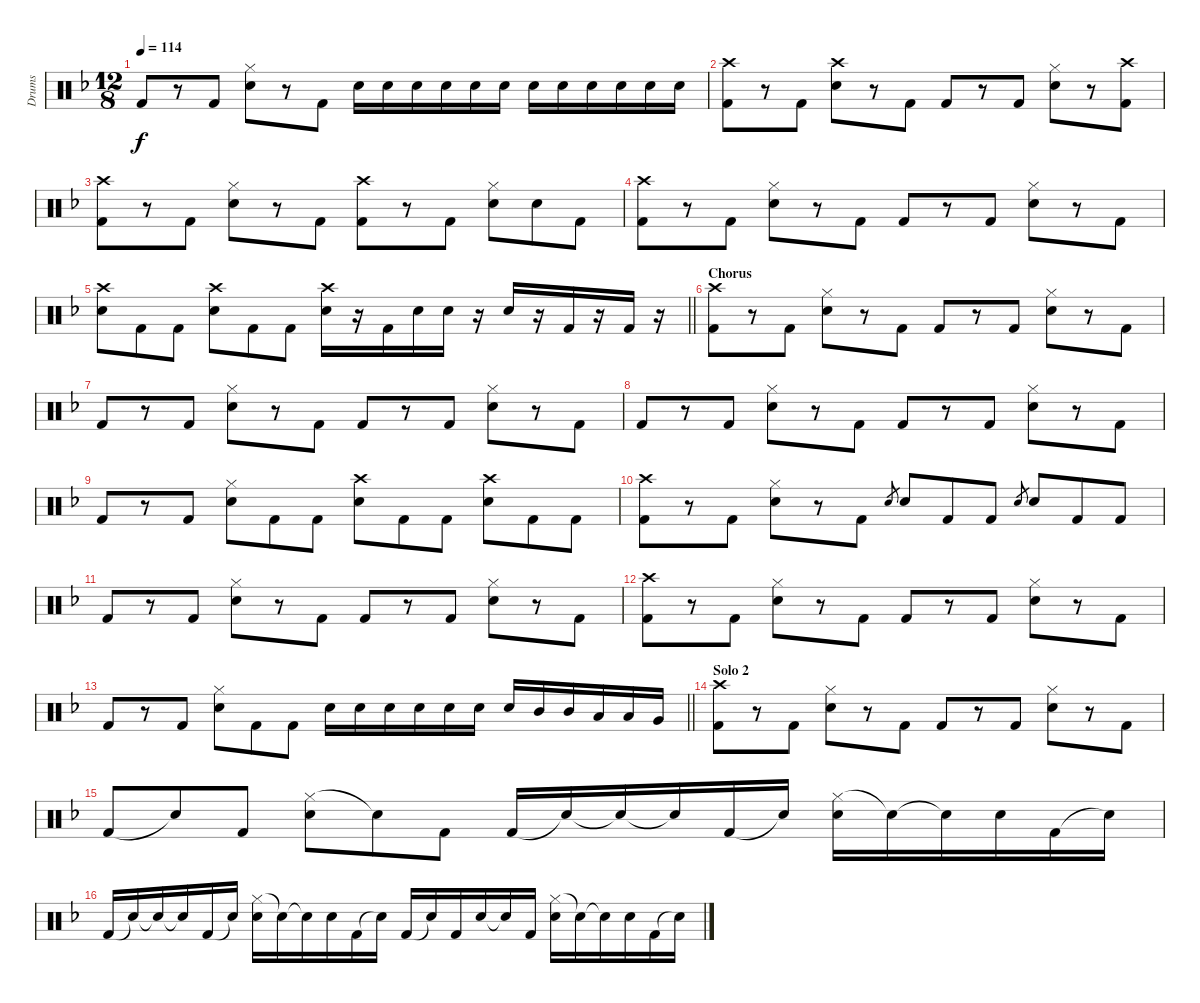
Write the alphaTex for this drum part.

\track ("Drums" "Drums") {instrument percussion}
\staff {score}
\articulation defaults
\ts (12 8)
\tempo 114
\clef neutral
\ks f "Kick (hit) 2".8{dy f}
r.8 "Kick (hit) 2".8 ("Hi-Hat (closed)" "Electric Snare (hit)").8 r.8 "Kick (hit) 2".8 "Electric Snare (hit)".16 "Electric Snare (hit)".16 "Electric Snare (hit)".16 "Electric Snare (hit)".16 "Electric Snare (hit)".16 "Electric Snare (hit)".16 "Electric Snare (hit)".16 "Electric Snare (hit)".16 "Electric Snare (hit)".16 "Electric Snare (hit)".16 "Electric Snare (hit)".16 "Electric Snare (hit)".16 |
("Crash high (hit)" "Kick (hit) 2").8 r.8 "Kick (hit) 2".8 ("Crash high (hit)" "Electric Snare (hit)").8 r.8 "Kick (hit) 2".8 "Kick (hit) 2".8 r.8 "Kick (hit) 2".8 ("Hi-Hat (closed)" "Electric Snare (hit)").8 r.8 ("Crash high (hit)" "Kick (hit) 2").8 |
("Crash high (hit)" "Kick (hit) 2").8 r.8 "Kick (hit) 2".8 ("Hi-Hat (closed)" "Electric Snare (hit)").8 r.8 "Kick (hit) 2".8 ("Crash high (hit)" "Kick (hit) 2").8 r.8 "Kick (hit) 2".8 ("Hi-Hat (closed)" "Electric Snare (hit)").8 "Electric Snare (hit)".8 "Kick (hit) 2".8 |
("Crash high (hit)" "Kick (hit) 2").8 r.8 "Kick (hit) 2".8 ("Hi-Hat (closed)" "Electric Snare (hit)").8 r.8 "Kick (hit) 2".8 "Kick (hit) 2".8 r.8 "Kick (hit) 2".8 ("Hi-Hat (closed)" "Electric Snare (hit)").8 r.8 "Kick (hit) 2".8 |
\barLineRight lightlight
("Crash high (hit)" "Electric Snare (hit)").8 "Kick (hit) 2".8 "Kick (hit) 2".8 ("Crash high (hit)" "Electric Snare (hit)").8 "Kick (hit) 2".8 "Kick (hit) 2".8 ("Crash high (hit)" "Electric Snare (hit)").16 r.16 "Kick (hit) 2".16 "Electric Snare (hit)".16 "Electric Snare (hit)".16 r.16 "Electric Snare (hit)".16 r.16 "Kick (hit) 2".16 r.16 "Kick (hit) 2".16 r.16 |
\section ("" "Chorus")
("Crash high (hit)" "Kick (hit) 2").8 r.8 "Kick (hit) 2".8 ("Hi-Hat (closed)" "Electric Snare (hit)").8 r.8 "Kick (hit) 2".8 "Kick (hit) 2".8 r.8 "Kick (hit) 2".8 ("Hi-Hat (closed)" "Electric Snare (hit)").8 r.8 "Kick (hit) 2".8 |
"Kick (hit) 2".8 r.8 "Kick (hit) 2".8 ("Hi-Hat (closed)" "Electric Snare (hit)").8 r.8 "Kick (hit) 2".8 "Kick (hit) 2".8 r.8 "Kick (hit) 2".8 ("Hi-Hat (closed)" "Electric Snare (hit)").8 r.8 "Kick (hit) 2".8 |
"Kick (hit) 2".8 r.8 "Kick (hit) 2".8 ("Hi-Hat (closed)" "Electric Snare (hit)").8 r.8 "Kick (hit) 2".8 "Kick (hit) 2".8 r.8 "Kick (hit) 2".8 ("Hi-Hat (closed)" "Electric Snare (hit)").8 r.8 "Kick (hit) 2".8 |
"Kick (hit) 2".8 r.8 "Kick (hit) 2".8 ("Hi-Hat (closed)" "Electric Snare (hit)").8 "Kick (hit) 2".8 "Kick (hit) 2".8 ("Crash high (hit)" "Electric Snare (hit)").8 "Kick (hit) 2".8 "Kick (hit) 2".8 ("Crash high (hit)" "Electric Snare (hit)").8 "Kick (hit) 2".8 "Kick (hit) 2".8 |
("Crash high (hit)" "Kick (hit) 2").8 r.8 "Kick (hit) 2".8 ("Hi-Hat (closed)" "Electric Snare (hit)").8 r.8 "Kick (hit) 2".8 "Electric Snare (hit)".8{gr} "Electric Snare (hit)".8 "Kick (hit) 2".8 "Kick (hit) 2".8 "Electric Snare (hit)".8{gr} "Electric Snare (hit)".8 "Kick (hit) 2".8 "Kick (hit) 2".8 |
"Kick (hit) 2".8 r.8 "Kick (hit) 2".8 ("Hi-Hat (closed)" "Electric Snare (hit)").8 r.8 "Kick (hit) 2".8 "Kick (hit) 2".8 r.8 "Kick (hit) 2".8 ("Hi-Hat (closed)" "Electric Snare (hit)").8 r.8 "Kick (hit) 2".8 |
("Crash high (hit)" "Kick (hit) 2").8 r.8 "Kick (hit) 2".8 ("Hi-Hat (closed)" "Electric Snare (hit)").8 r.8 "Kick (hit) 2".8 "Kick (hit) 2".8 r.8 "Kick (hit) 2".8 ("Hi-Hat (closed)" "Electric Snare (hit)").8 r.8 "Kick (hit) 2".8 |
\barLineRight lightlight "Kick (hit) 2".8
r.8 "Kick (hit) 2".8 ("Hi-Hat (closed)" "Electric Snare (hit)").8 "Kick (hit) 2".8 "Kick (hit) 2".8 "Electric Snare (hit)".16 "Electric Snare (hit)".16 "Electric Snare (hit)".16 "Electric Snare (hit)".16 "Electric Snare (hit)".16 "Electric Snare (hit)".16 "Electric Snare (hit)".16 "Mid Tom (hit)".16 "Mid Tom (hit)".16 "Low Tom (hit)".16 "Low Tom (hit)".16 "Very Low Tom (hit)".16 |
\section ("" "Solo 2")
("Crash high (hit)" "Kick (hit) 2").8 r.8 "Kick (hit) 2".8 ("Hi-Hat (closed)" "Electric Snare (hit)").8 r.8 "Kick (hit) 2".8 "Kick (hit) 2".8 r.8 "Kick (hit) 2".8 ("Hi-Hat (closed)" "Electric Snare (hit)").8 r.8 "Kick (hit) 2".8 |
"Kick (hit) 2".8 "Snare (hit)"{t}.8 "Kick (hit) 2".8 ("Hi-Hat (closed)" "Electric Snare (hit)").8 "Snare (hit)"{t}.8 "Kick (hit) 2".8 "Kick (hit) 2".16 "Snare (hit)"{t}.16 "Snare (hit)"{t}.16 "Snare (hit)"{t}.16 "Kick (hit) 2".16 "Snare (hit)"{t}.16 ("Hi-Hat (closed)" "Electric Snare (hit)").16 "Snare (hit)"{t}.16 "Snare (hit)"{t}.16 "Electric Snare (hit)".16 "Kick (hit) 2".16 "Snare (hit)"{t}.16 |
"Kick (hit) 2".16 "Snare (hit)"{t}.16 "Snare (hit)"{t}.16 "Snare (hit)"{t}.16 "Kick (hit) 2".16 "Snare (hit)"{t}.16 ("Hi-Hat (closed)" "Electric Snare (hit)").16 "Snare (hit)"{t}.16 "Snare (hit)"{t}.16 "Electric Snare (hit)".16 "Kick (hit) 2".16 "Snare (hit)"{t}.16 "Kick (hit) 2".16 "Snare (hit)"{t}.16 "Kick (hit) 2".16 "Electric Snare (hit)".16 "Snare (hit)"{t}.16 "Kick (hit) 2".16 ("Hi-Hat (closed)" "Electric Snare (hit)").16 "Snare (hit)"{t}.16 "Snare (hit)"{t}.16 "Electric Snare (hit)".16 "Kick (hit) 2".16 "Snare (hit)"{t}.16
